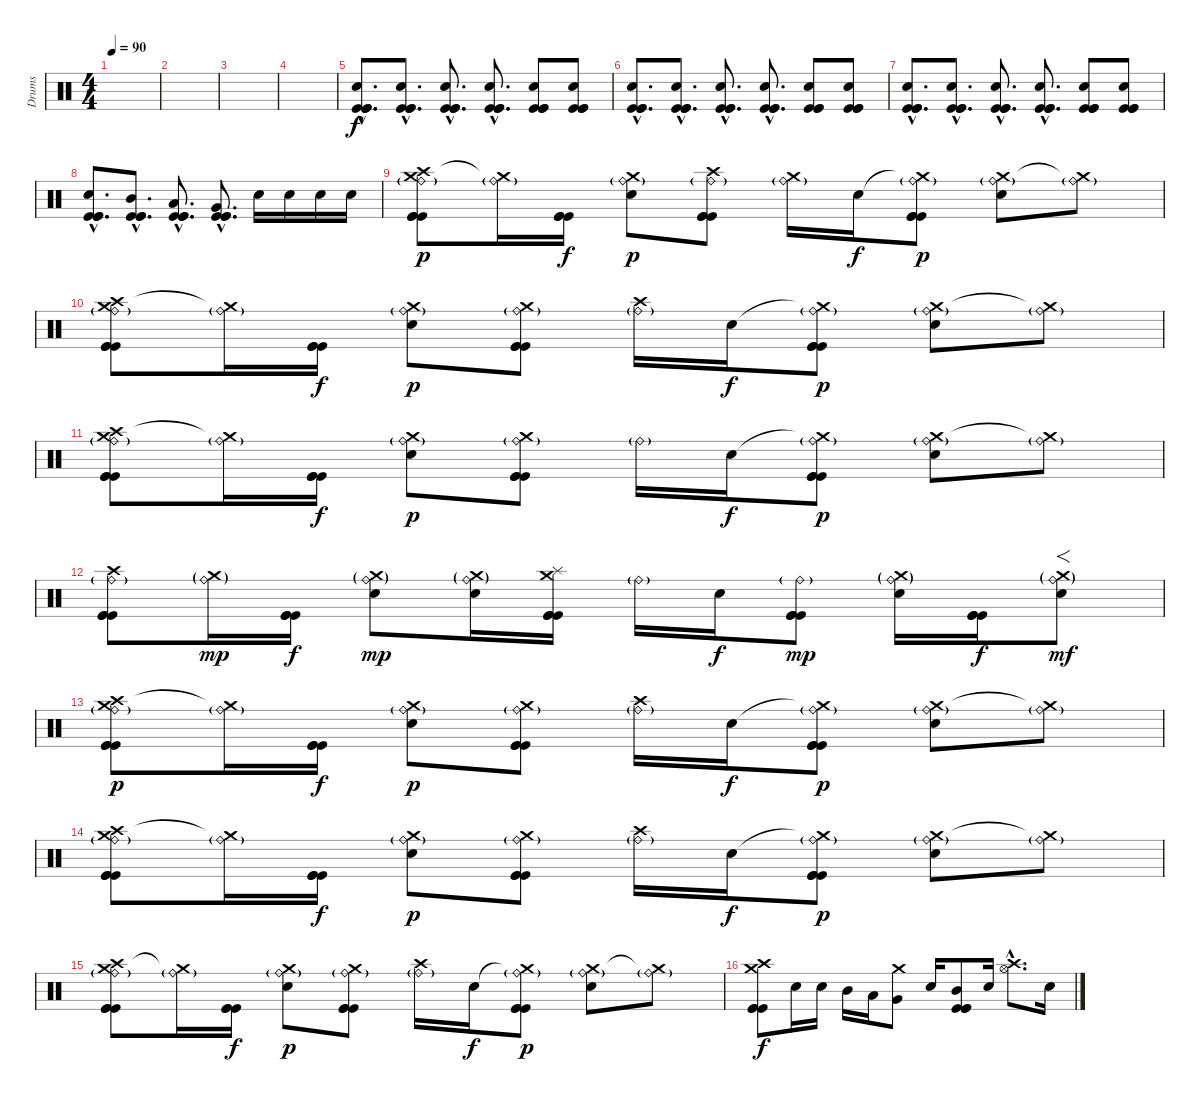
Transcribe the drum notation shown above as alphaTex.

\track ("Drums" "Drums") {instrument percussion}
\staff {score}
\articulation defaults
\ts (4 4)
\tempo 90
\clef neutral
\ks c
|
|
|
|
("Electric Snare (hit)"{hac} "Kick (hit)"{hac} "Kick (hit)"{hac} "Kick (hit)"{hac}).8{d} ("Electric Snare (hit)"{hac} "Kick (hit)"{hac} "Kick (hit)"{hac} "Kick (hit)"{hac}).8{d} ("Electric Snare (hit)"{hac} "Kick (hit)"{hac} "Kick (hit)"{hac} "Kick (hit)"{hac}).8{d} ("Electric Snare (hit)"{hac} "Kick (hit)"{hac} "Kick (hit)"{hac} "Kick (hit)"{hac}).8{d} ("Electric Snare (hit)" "Kick (hit)" "Kick (hit)" "Kick (hit)").8 ("Electric Snare (hit)" "Kick (hit)" "Kick (hit)" "Kick (hit)").8 |
("Electric Snare (hit)"{hac} "Kick (hit)"{hac} "Kick (hit)"{hac} "Kick (hit)"{hac}).8{d} ("Electric Snare (hit)"{hac} "Kick (hit)"{hac} "Kick (hit)"{hac} "Kick (hit)"{hac}).8{d} ("Electric Snare (hit)"{hac} "Kick (hit)"{hac} "Kick (hit)"{hac} "Kick (hit)"{hac}).8{d} ("Electric Snare (hit)"{hac} "Kick (hit)"{hac} "Kick (hit)"{hac} "Kick (hit)"{hac}).8{d} ("Electric Snare (hit)" "Kick (hit)" "Kick (hit)" "Kick (hit)").8 ("Electric Snare (hit)" "Kick (hit)" "Kick (hit)" "Kick (hit)").8 |
("Electric Snare (hit)"{hac} "Kick (hit)"{hac} "Kick (hit)"{hac} "Kick (hit)"{hac}).8{d} ("Electric Snare (hit)"{hac} "Kick (hit)"{hac} "Kick (hit)"{hac} "Kick (hit)"{hac}).8{d} ("Electric Snare (hit)"{hac} "Kick (hit)"{hac} "Kick (hit)"{hac} "Kick (hit)"{hac}).8{d} ("Electric Snare (hit)"{hac} "Kick (hit)"{hac} "Kick (hit)"{hac} "Kick (hit)"{hac}).8{d} ("Electric Snare (hit)" "Kick (hit)" "Kick (hit)" "Kick (hit)").8 ("Electric Snare (hit)" "Kick (hit)" "Kick (hit)" "Kick (hit)").8 |
("Electric Snare (hit)"{hac} "Kick (hit)"{hac} "Kick (hit)"{hac} "Kick (hit)"{hac}).8{d} ("Mid Tom (hit)"{hac} "Kick (hit)"{hac} "Kick (hit)"{hac} "Kick (hit)"{hac}).8{d} ("Low Tom (hit)"{hac} "Kick (hit)"{hac} "Kick (hit)"{hac} "Kick (hit)"{hac}).8{d} ("Very Low Tom (hit)"{hac} "Kick (hit)"{hac} "Kick (hit)"{hac} "Kick (hit)"{hac}).8{d} "Electric Snare (hit)".16 "Electric Snare (hit)".16 "Electric Snare (hit)".16 "Electric Snare (hit)".16 |
("Crash high (hit)" "Crash medium (hit)" "Ride (bell)"{g} "Kick (hit)" "Kick (hit)" "Kick (hit)").8{dy p} ("Crash medium (hit)"{t} "Ride (bell)"{g}).16 ("Kick (hit)" "Kick (hit)" "Kick (hit)").16{dy f} ("Crash medium (hit)" "Ride (bell)"{g} "Electric Snare (hit)").8{dy p} ("Crash high (hit)" "Ride (bell)"{g} "Kick (hit)" "Kick (hit)" "Kick (hit)").8 ("Crash medium (hit)" "Ride (bell)"{g}).16 "Electric Snare (hit)".16{dy f} ("Crash medium (hit)"{t} "Ride (bell)"{g} "Kick (hit)" "Kick (hit)" "Kick (hit)").8{dy p} ("Crash medium (hit)" "Ride (bell)"{g} "Electric Snare (hit)").8 ("Crash medium (hit)"{t} "Ride (bell)"{g}).8 |
("Crash high (hit)" "Crash medium (hit)" "Ride (bell)"{g} "Kick (hit)" "Kick (hit)" "Kick (hit)").8 ("Crash medium (hit)"{t} "Ride (bell)"{g}).16 ("Kick (hit)" "Kick (hit)" "Kick (hit)").16{dy f} ("Crash medium (hit)" "Ride (bell)"{g} "Electric Snare (hit)").8{dy p} ("Crash medium (hit)" "Ride (bell)"{g} "Kick (hit)" "Kick (hit)" "Kick (hit)").8 ("Crash high (hit)" "Ride (bell)"{g}).16 "Electric Snare (hit)".16{dy f} ("Crash medium (hit)"{t} "Ride (bell)"{g} "Kick (hit)" "Kick (hit)" "Kick (hit)").8{dy p} ("Crash medium (hit)" "Ride (bell)"{g} "Electric Snare (hit)").8 ("Crash medium (hit)"{t} "Ride (bell)"{g}).8 |
("Crash high (hit)" "Crash medium (hit)" "Ride (bell)"{g} "Kick (hit)" "Kick (hit)" "Kick (hit)").8 ("Crash medium (hit)"{t} "Ride (bell)"{g}).16 ("Kick (hit)" "Kick (hit)" "Kick (hit)").16{dy f} ("Crash medium (hit)" "Ride (bell)"{g} "Electric Snare (hit)").8{dy p} ("Crash medium (hit)" "Ride (bell)"{g} "Kick (hit)" "Kick (hit)" "Kick (hit)").8 "Ride (bell)"{g}.16 "Electric Snare (hit)".16{dy f} ("Crash medium (hit)"{t} "Ride (bell)"{g} "Kick (hit)" "Kick (hit)" "Kick (hit)").8{dy p} ("Crash medium (hit)" "Ride (bell)"{g} "Electric Snare (hit)").8 ("Crash medium (hit)"{t} "Ride (bell)"{g}).8 |
("Crash high (hit)" "Ride (bell)"{g} "Kick (hit)" "Kick (hit)" "Kick (hit)").8 ("Crash medium (hit)"{g} "Ride (bell)"{g}).16{dy mp} ("Kick (hit)" "Kick (hit)" "Kick (hit)").16{dy f} ("Crash medium (hit)"{g} "Ride (bell)"{g} "Electric Snare (hit)").8{dy mp} ("Crash medium (hit)"{g} "Ride (bell)"{g} "Electric Snare (hit)").16 ("Splash (hit)" "Crash medium (hit)" "Kick (hit)" "Kick (hit)" "Kick (hit)").16 "Ride (bell)"{g}.16 "Electric Snare (hit)".16{dy f} ("Ride (bell)"{g} "Kick (hit)" "Kick (hit)" "Kick (hit)").8{dy mp} ("Crash medium (hit)"{g} "Ride (bell)"{g} "Electric Snare (hit)").16 ("Kick (hit)" "Kick (hit)" "Kick (hit)").16{dy f} ("Crash medium (hit)"{g} "Ride (bell)"{g} "Electric Snare (hit)"{tr (40 64)}).8{f dy mf} |
("Crash high (hit)" "Crash medium (hit)" "Ride (bell)"{g} "Kick (hit)" "Kick (hit)" "Kick (hit)").8{dy p} ("Crash medium (hit)"{t} "Ride (bell)"{g}).16 ("Kick (hit)" "Kick (hit)" "Kick (hit)").16{dy f} ("Crash medium (hit)" "Ride (bell)"{g} "Electric Snare (hit)").8{dy p} ("Crash medium (hit)" "Ride (bell)"{g} "Kick (hit)" "Kick (hit)" "Kick (hit)").8 ("Crash high (hit)" "Ride (bell)"{g}).16 "Electric Snare (hit)".16{dy f} ("Crash medium (hit)"{t} "Ride (bell)"{g} "Kick (hit)" "Kick (hit)" "Kick (hit)").8{dy p} ("Crash medium (hit)" "Ride (bell)"{g} "Electric Snare (hit)").8 ("Crash medium (hit)"{t} "Ride (bell)"{g}).8 |
("Crash high (hit)" "Crash medium (hit)" "Ride (bell)"{g} "Kick (hit)" "Kick (hit)" "Kick (hit)").8 ("Crash medium (hit)"{t} "Ride (bell)"{g}).16 ("Kick (hit)" "Kick (hit)" "Kick (hit)").16{dy f} ("Crash medium (hit)" "Ride (bell)"{g} "Electric Snare (hit)").8{dy p} ("Crash medium (hit)" "Ride (bell)"{g} "Kick (hit)" "Kick (hit)" "Kick (hit)").8 ("Crash high (hit)" "Ride (bell)"{g}).16 "Electric Snare (hit)".16{dy f} ("Crash medium (hit)"{t} "Ride (bell)"{g} "Kick (hit)" "Kick (hit)" "Kick (hit)").8{dy p} ("Crash medium (hit)" "Ride (bell)"{g} "Electric Snare (hit)").8 ("Crash medium (hit)"{t} "Ride (bell)"{g}).8 |
("Crash high (hit)" "Crash medium (hit)" "Ride (bell)"{g} "Kick (hit)" "Kick (hit)" "Kick (hit)").8 ("Crash medium (hit)"{t} "Ride (bell)"{g}).16 ("Kick (hit)" "Kick (hit)" "Kick (hit)").16{dy f} ("Crash medium (hit)" "Ride (bell)"{g} "Electric Snare (hit)").8{dy p} ("Crash medium (hit)" "Ride (bell)"{g} "Kick (hit)" "Kick (hit)" "Kick (hit)").8 ("Crash high (hit)" "Ride (bell)"{g}).16 "Electric Snare (hit)".16{dy f} ("Crash medium (hit)"{t} "Ride (bell)"{g} "Kick (hit)" "Kick (hit)" "Kick (hit)").8{dy p} ("Crash medium (hit)" "Ride (bell)"{g} "Electric Snare (hit)").8 ("Crash medium (hit)"{t} "Ride (bell)"{g}).8 |
("Crash medium (hit)" "Crash high (hit)" "Kick (hit)" "Kick (hit)" "Kick (hit)").8{dy f} "Electric Snare (hit)".16 "Electric Snare (hit)".16 "Mid Tom (hit)".16 "Low Tom (hit)".16 ("Crash medium (hit)" "Very Low Tom (hit)").8 "Electric Snare (hit)".16 ("Mid Tom (hit)" "Kick (hit)" "Kick (hit)" "Kick (hit)").8 "Electric Snare (hit)".16 ("Crash high (hit)"{hac} "Hi-Hat (open)"{hac}).8{d} "Electric Snare (hit)".16
